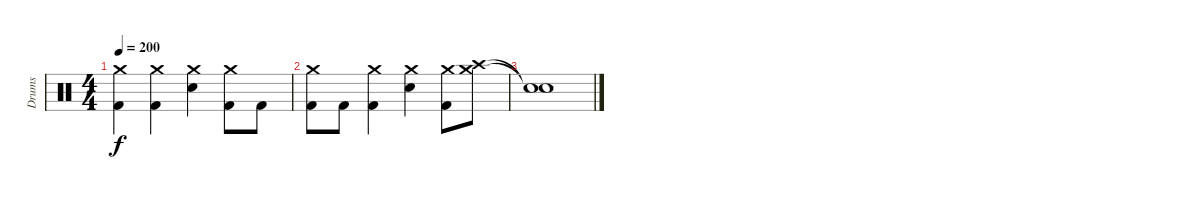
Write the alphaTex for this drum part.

\track ("Drums" "Drums") {instrument percussion}
\staff {score}
\articulation defaults
\ts (4 4)
\tempo 200
\clef neutral
\ks c
("Crash medium (hit)" "Kick (hit) 2").4{dy f} ("Crash medium (hit)" "Kick (hit) 2").4 ("Crash medium (hit)" "Snare (hit) 2").4 ("Crash medium (hit)" "Kick (hit) 2").8 "Kick (hit) 2".8 |
("Crash medium (hit)" "Kick (hit) 2").8 "Kick (hit) 2".8 ("Crash medium (hit)" "Kick (hit) 2").4 ("Crash medium (hit)" "Snare (hit) 2").4 ("Crash medium (hit)" "Kick (hit) 2").8 ("Crash medium (hit)" "Crash high (hit)").8 |
("Snare (hit)"{t} "Snare (hit)"{t}).1
